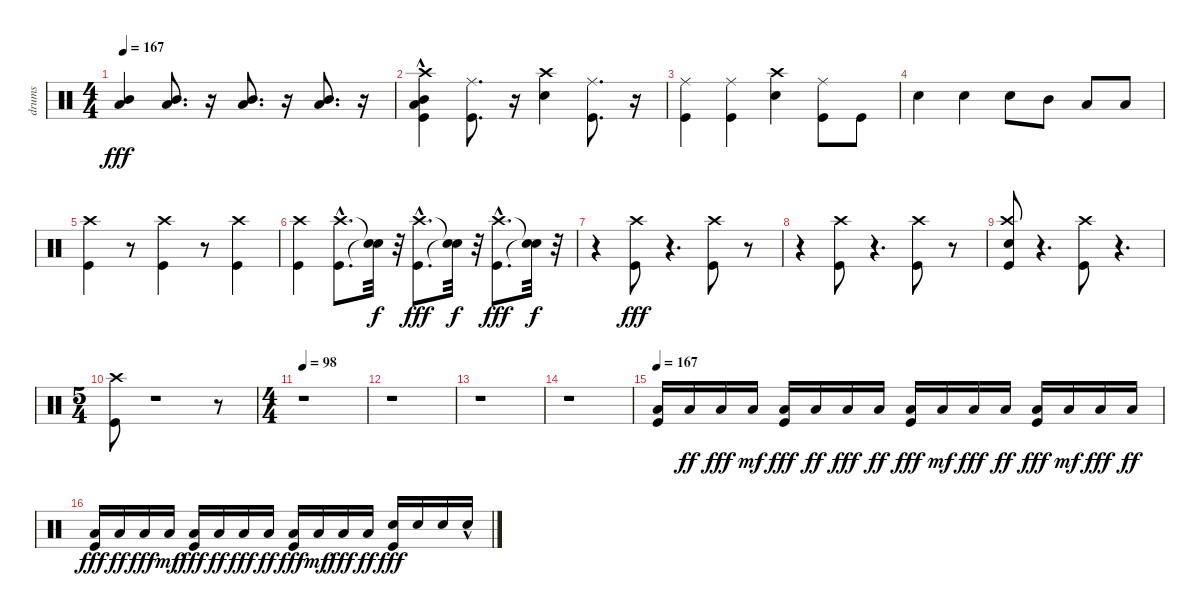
\track ("drums" "drums") {instrument percussion}
\staff {score}
\articulation defaults
\ts (4 4)
\tempo 167
\clef neutral
\ks c
("Low Tom (hit)" "Mid Tom (hit)").4{dy fff} ("Low Tom (hit)" "Mid Tom (hit)").8{d} r.16 ("Low Tom (hit)" "Mid Tom (hit)").8{d} r.16 ("Low Tom (hit)" "Mid Tom (hit)").8{d} r.16 |
("Low Tom (hit)"{hac} "Kick (hit)" "Mid Tom (hit)"{hac} "Crash high (hit)").4 ("Kick (hit)" "Ride (middle)").8{d} r.16 ("Snare (hit) 2" "Crash high (hit)").4 ("Kick (hit)" "Ride (middle)").8{d} r.16 |
("Kick (hit)" "Ride (middle)").4 ("Kick (hit)" "Ride (middle)").4 ("Snare (hit) 2" "Crash high (hit)").4 ("Ride (middle)" "Kick (hit)").8 "Kick (hit)".8 |
"Snare (hit) 2".4 "Snare (hit) 2".4 "Snare (hit) 2".8 "Mid Tom (hit)".8 "Low Tom (hit)".8 "Low Floor Tom (hit)".8 |
("Kick (hit)" "Crash high (hit)").4 r.8 ("Kick (hit)" "Crash high (hit)").4 r.8 ("Crash high (hit)" "Kick (hit)").4 |
("Kick (hit)" "Crash high (hit)").4 ("Kick (hit)"{hac} "Crash high (hit)"{hac}).8{d} ("Snare (hit)"{t} "Snare (hit)"{t}).32{dy f} r.32 ("Kick (hit)"{hac} "Crash high (hit)"{hac}).8{d dy fff} ("Snare (hit)"{t} "Snare (hit)"{t}).32{dy f} r.32 ("Kick (hit)"{hac} "Crash high (hit)"{hac}).8{d dy fff} ("Snare (hit)"{t} "Snare (hit)"{t}).32{dy f} r.32 |
r.4 ("Kick (hit)" "Crash high (hit)").8{dy fff} r.4{d} ("Kick (hit)" "Crash high (hit)").8 r.8 |
r.4 ("Kick (hit)" "Crash high (hit)").8 r.4{d} ("Kick (hit)" "Crash high (hit)").8 r.8 |
("Snare (hit)" "Kick (hit)" "Crash high (hit)").8 r.4{d} ("Kick (hit)" "Crash high (hit)").8 r.4{d} |
\ts (5 4)
("Kick (hit)" "Crash high (hit)").8 r.1 r.8 |
\ts (4 4)
\tempo 98
r.1 |
r.1 |
r.1 |
r.1 |
\tempo 167
("Kick (hit)" "Low Floor Tom (hit)").16 "Low Floor Tom (hit)".16{dy ff} "Low Floor Tom (hit)".16{dy fff} "Low Floor Tom (hit)".16{dy mf} ("Kick (hit)" "Low Floor Tom (hit)").16{dy fff} "Low Floor Tom (hit)".16{dy ff} "Low Floor Tom (hit)".16{dy fff} "Low Floor Tom (hit)".16{dy ff} ("Kick (hit)" "Low Floor Tom (hit)").16{dy fff} "Low Floor Tom (hit)".16{dy mf} "Low Floor Tom (hit)".16{dy fff} "Low Floor Tom (hit)".16{dy ff} ("Kick (hit)" "Low Floor Tom (hit)").16{dy fff} "Low Floor Tom (hit)".16{dy mf} "Low Floor Tom (hit)".16{dy fff} "Low Floor Tom (hit)".16{dy ff} |
("Kick (hit)" "Low Floor Tom (hit)").16{dy fff} "Low Floor Tom (hit)".16{dy ff} "Low Floor Tom (hit)".16{dy fff} "Low Floor Tom (hit)".16{dy mf} ("Kick (hit)" "Low Floor Tom (hit)").16{dy fff} "Low Floor Tom (hit)".16{dy ff} "Low Floor Tom (hit)".16{dy fff} "Low Floor Tom (hit)".16{dy ff} ("Kick (hit)" "Low Floor Tom (hit)").16{dy fff} "Low Floor Tom (hit)".16{dy mf} "Low Floor Tom (hit)".16{dy fff} "Low Floor Tom (hit)".16{dy ff} ("Kick (hit)" "Snare (hit) 2").16{dy fff} "Snare (hit) 2".16 "Snare (hit) 2".16 "Snare (hit) 2"{hac}.16
